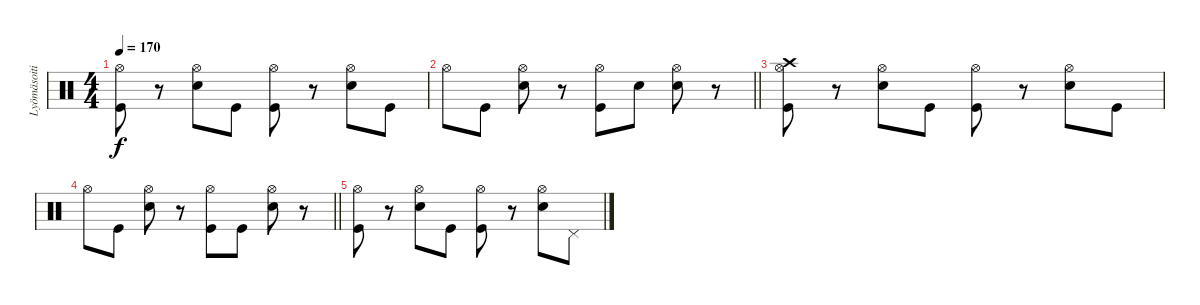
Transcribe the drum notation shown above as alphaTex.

\track ("Lyömäsoitin" "Lyömäsoiti") {instrument percussion}
\staff {score}
\articulation defaults
\ts (4 4)
\tempo 170
\clef neutral
\ks c
("Hi-Hat (open)" "Kick (hit)").8{dy f} r.8 ("Hi-Hat (open)" "Snare (hit) 2").8 "Kick (hit)".8 ("Hi-Hat (open)" "Kick (hit)").8 r.8 ("Hi-Hat (open)" "Snare (hit) 2").8 "Kick (hit)".8 |
\barLineRight lightlight "Hi-Hat (open)".8 "Kick (hit)".8
("Hi-Hat (open)" "Snare (hit) 2").8 r.8 ("Hi-Hat (open)" "Kick (hit)").8 "Snare (hit) 2".8 ("Hi-Hat (open)" "Snare (hit) 2").8 r.8 |
("Crash high (hit)" "Hi-Hat (open)" "Kick (hit)").8 r.8 ("Hi-Hat (open)" "Snare (hit) 2").8 "Kick (hit)".8 ("Hi-Hat (open)" "Kick (hit)").8 r.8 ("Hi-Hat (open)" "Snare (hit) 2").8 "Kick (hit)".8 |
\barLineRight lightlight "Hi-Hat (open)".8 "Kick (hit)".8
("Hi-Hat (open)" "Snare (hit) 2").8 r.8 ("Hi-Hat (open)" "Kick (hit)").8 "Kick (hit)".8 ("Hi-Hat (open)" "Snare (hit) 2").8 r.8 |
("Hi-Hat (open)" "Kick (hit)").8 r.8 ("Hi-Hat (open)" "Snare (hit) 2").8 "Kick (hit)".8 ("Hi-Hat (open)" "Kick (hit)").8 r.8 ("Hi-Hat (open)" "Snare (hit) 2").8 "Pedal Hi-Hat (hit)".8
